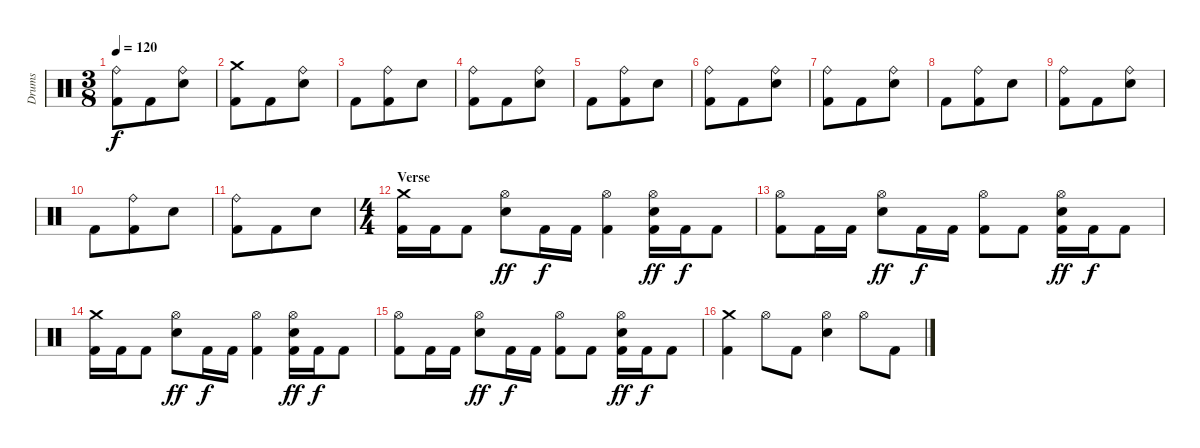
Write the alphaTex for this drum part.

\track ("Drums" "Drums") {instrument percussion}
\staff {score}
\articulation defaults
\ts (3 8)
\tempo 120
\clef neutral
\ks c
("Ride (bell)" "Kick (hit) 2").8{dy f} "Kick (hit) 2".8 ("Ride (bell)" "Snare (hit) 2").8 |
("Crash medium (hit)" "Kick (hit) 2").8 "Kick (hit) 2".8 ("Ride (bell)" "Snare (hit) 2").8 |
"Kick (hit) 2".8 ("Ride (bell)" "Kick (hit) 2").8 "Snare (hit) 2".8 |
("Ride (bell)" "Kick (hit) 2").8 "Kick (hit) 2".8 ("Ride (bell)" "Snare (hit) 2").8 |
"Kick (hit) 2".8 ("Ride (bell)" "Kick (hit) 2").8 "Snare (hit) 2".8 |
("Ride (bell)" "Kick (hit) 2").8 "Kick (hit) 2".8 ("Ride (bell)" "Snare (hit) 2").8 |
("Ride (bell)" "Kick (hit) 2").8 "Kick (hit) 2".8 ("Ride (bell)" "Snare (hit) 2").8 |
"Kick (hit) 2".8 ("Ride (bell)" "Kick (hit) 2").8 "Snare (hit) 2".8 |
("Ride (bell)" "Kick (hit) 2").8 "Kick (hit) 2".8 ("Ride (bell)" "Snare (hit) 2").8 |
"Kick (hit) 2".8 ("Ride (bell)" "Kick (hit) 2").8 "Snare (hit) 2".8 |
("Ride (bell)" "Kick (hit) 2").8 "Kick (hit) 2".8 "Snare (hit) 2".8 |
\ts (4 4)
\section ("" "Verse")
("Crash medium (hit)" "Kick (hit) 2").16 "Kick (hit) 2".16 "Kick (hit) 2".8 ("Hi-Hat (open)" "Snare (hit) 2").8{dy ff} "Kick (hit) 2".16{dy f} "Kick (hit) 2".16 ("Hi-Hat (open)" "Kick (hit) 2").4 ("Hi-Hat (open)" "Snare (hit) 2" "Kick (hit) 2").16{dy ff} "Kick (hit) 2".16{dy f} "Kick (hit) 2".8 |
("Hi-Hat (open)" "Kick (hit) 2").8 "Kick (hit) 2".16 "Kick (hit) 2".16 ("Hi-Hat (open)" "Snare (hit) 2").8{dy ff} "Kick (hit) 2".16{dy f} "Kick (hit) 2".16 ("Hi-Hat (open)" "Kick (hit) 2").8 "Kick (hit) 2".8 ("Hi-Hat (open)" "Snare (hit) 2" "Kick (hit) 2").16{dy ff} "Kick (hit) 2".16{dy f} "Kick (hit) 2".8 |
("Crash medium (hit)" "Kick (hit) 2").16 "Kick (hit) 2".16 "Kick (hit) 2".8 ("Hi-Hat (open)" "Snare (hit) 2").8{dy ff} "Kick (hit) 2".16{dy f} "Kick (hit) 2".16 ("Hi-Hat (open)" "Kick (hit) 2").4 ("Hi-Hat (open)" "Snare (hit) 2" "Kick (hit) 2").16{dy ff} "Kick (hit) 2".16{dy f} "Kick (hit) 2".8 |
("Hi-Hat (open)" "Kick (hit) 2").8 "Kick (hit) 2".16 "Kick (hit) 2".16 ("Hi-Hat (open)" "Snare (hit) 2").8{dy ff} "Kick (hit) 2".16{dy f} "Kick (hit) 2".16 ("Hi-Hat (open)" "Kick (hit) 2").8 "Kick (hit) 2".8 ("Hi-Hat (open)" "Snare (hit) 2" "Kick (hit) 2").16{dy ff} "Kick (hit) 2".16{dy f} "Kick (hit) 2".8 |
("Crash medium (hit)" "Kick (hit) 2").4 "Hi-Hat (open)".8 "Kick (hit) 2".8 ("Hi-Hat (open)" "Snare (hit) 2").4 "Hi-Hat (open)".8 "Kick (hit) 2".8
